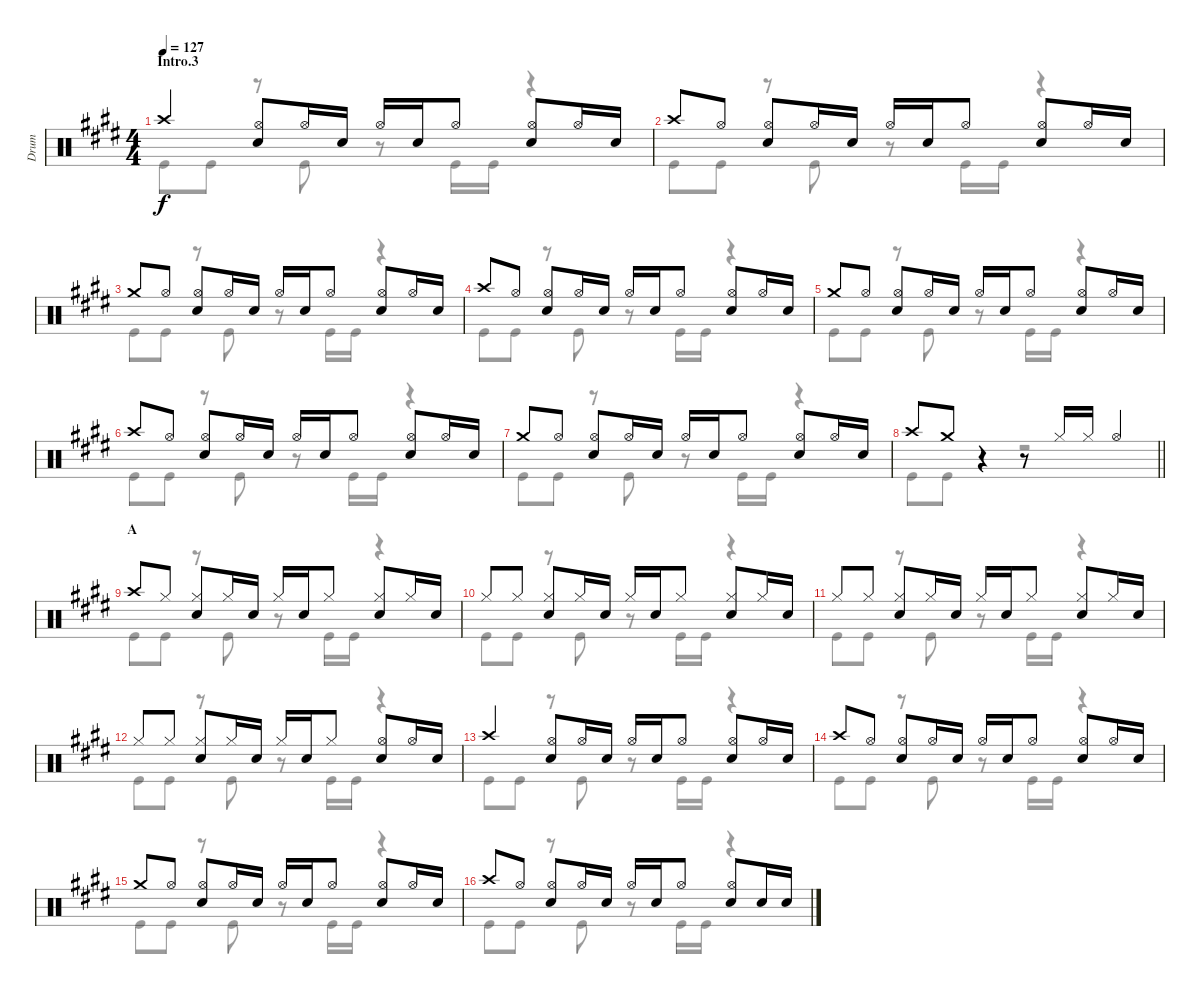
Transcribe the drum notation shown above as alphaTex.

\track ("Drum" "Drum") {instrument percussion}
\staff {score}
\articulation defaults
\voice
\ts (4 4)
\section ("" "Intro.3")
\tempo 127
\clef neutral
\ks e "Crash high (hit)".4{dy f}
("Hi-Hat (open)" "Snare (hit) 2").8 "Hi-Hat (open)".16 "Snare (hit) 2".16 "Hi-Hat (open)".16 "Snare (hit) 2".16 "Hi-Hat (open)".8 ("Snare (hit) 2" "Hi-Hat (open)").8 "Hi-Hat (open)".16 "Snare (hit) 2".16 |
"Crash high (hit)".8 "Hi-Hat (open)".8 ("Hi-Hat (open)" "Snare (hit) 2").8 "Hi-Hat (open)".16 "Snare (hit) 2".16 "Hi-Hat (open)".16 "Snare (hit) 2".16 "Hi-Hat (open)".8 ("Snare (hit) 2" "Hi-Hat (open)").8 "Hi-Hat (open)".16 "Snare (hit) 2".16 |
"Crash medium (hit)".8 "Hi-Hat (open)".8 ("Hi-Hat (open)" "Snare (hit) 2").8 "Hi-Hat (open)".16 "Snare (hit) 2".16 "Hi-Hat (open)".16 "Snare (hit) 2".16 "Hi-Hat (open)".8 ("Snare (hit) 2" "Hi-Hat (open)").8 "Hi-Hat (open)".16 "Snare (hit) 2".16 |
"Crash high (hit)".8 "Hi-Hat (open)".8 ("Hi-Hat (open)" "Snare (hit) 2").8 "Hi-Hat (open)".16 "Snare (hit) 2".16 "Hi-Hat (open)".16 "Snare (hit) 2".16 "Hi-Hat (open)".8 ("Snare (hit) 2" "Hi-Hat (open)").8 "Hi-Hat (open)".16 "Snare (hit) 2".16 |
"Crash medium (hit)".8 "Hi-Hat (open)".8 ("Hi-Hat (open)" "Snare (hit) 2").8 "Hi-Hat (open)".16 "Snare (hit) 2".16 "Hi-Hat (open)".16 "Snare (hit) 2".16 "Hi-Hat (open)".8 ("Snare (hit) 2" "Hi-Hat (open)").8 "Hi-Hat (open)".16 "Snare (hit) 2".16 |
"Crash high (hit)".8 "Hi-Hat (open)".8 ("Hi-Hat (open)" "Snare (hit) 2").8 "Hi-Hat (open)".16 "Snare (hit) 2".16 "Hi-Hat (open)".16 "Snare (hit) 2".16 "Hi-Hat (open)".8 ("Snare (hit) 2" "Hi-Hat (open)").8 "Hi-Hat (open)".16 "Snare (hit) 2".16 |
"Crash medium (hit)".8 "Hi-Hat (open)".8 ("Hi-Hat (open)" "Snare (hit) 2").8 "Hi-Hat (open)".16 "Snare (hit) 2".16 "Hi-Hat (open)".16 "Snare (hit) 2".16 "Hi-Hat (open)".8 ("Snare (hit) 2" "Hi-Hat (open)").8 "Hi-Hat (open)".16 "Snare (hit) 2".16 |
\barLineRight lightlight "Crash high (hit)".8 "Crash medium (hit)".8
r.4 r.8 "Hi-Hat (closed)".16 "Hi-Hat (closed)".16 "Hi-Hat (open)".4 |
\section ("" "A")
"Crash high (hit)".8 "Hi-Hat (closed)".8 ("Hi-Hat (closed)" "Snare (hit) 2").8 "Hi-Hat (closed)".16 "Snare (hit) 2".16 "Hi-Hat (closed)".16 "Snare (hit) 2".16 "Hi-Hat (closed)".8 ("Snare (hit) 2" "Hi-Hat (closed)").8 "Hi-Hat (closed)".16 "Snare (hit) 2".16 |
"Hi-Hat (closed)".8 "Hi-Hat (closed)".8 ("Hi-Hat (closed)" "Snare (hit) 2").8 "Hi-Hat (closed)".16 "Snare (hit) 2".16 "Hi-Hat (closed)".16 "Snare (hit) 2".16 "Hi-Hat (closed)".8 ("Snare (hit) 2" "Hi-Hat (closed)").8 "Hi-Hat (closed)".16 "Snare (hit) 2".16 |
"Hi-Hat (closed)".8 "Hi-Hat (closed)".8 ("Hi-Hat (closed)" "Snare (hit) 2").8 "Hi-Hat (closed)".16 "Snare (hit) 2".16 "Hi-Hat (closed)".16 "Snare (hit) 2".16 "Hi-Hat (closed)".8 ("Snare (hit) 2" "Hi-Hat (closed)").8 "Hi-Hat (closed)".16 "Snare (hit) 2".16 |
"Hi-Hat (closed)".8 "Hi-Hat (closed)".8 ("Hi-Hat (closed)" "Snare (hit) 2").8 "Hi-Hat (closed)".16 "Snare (hit) 2".16 "Hi-Hat (closed)".16 "Snare (hit) 2".16 "Hi-Hat (closed)".8 ("Snare (hit) 2" "Hi-Hat (open)").8 "Hi-Hat (open)".16 "Snare (hit) 2".16 |
"Crash high (hit)".4 ("Hi-Hat (open)" "Snare (hit) 2").8 "Hi-Hat (open)".16 "Snare (hit) 2".16 "Hi-Hat (open)".16 "Snare (hit) 2".16 "Hi-Hat (open)".8 ("Snare (hit) 2" "Hi-Hat (open)").8 "Hi-Hat (open)".16 "Snare (hit) 2".16 |
"Crash high (hit)".8 "Hi-Hat (open)".8 ("Hi-Hat (open)" "Snare (hit) 2").8 "Hi-Hat (open)".16 "Snare (hit) 2".16 "Hi-Hat (open)".16 "Snare (hit) 2".16 "Hi-Hat (open)".8 ("Snare (hit) 2" "Hi-Hat (open)").8 "Hi-Hat (open)".16 "Snare (hit) 2".16 |
"Crash medium (hit)".8 "Hi-Hat (open)".8 ("Hi-Hat (open)" "Snare (hit) 2").8 "Hi-Hat (open)".16 "Snare (hit) 2".16 "Hi-Hat (open)".16 "Snare (hit) 2".16 "Hi-Hat (open)".8 ("Snare (hit) 2" "Hi-Hat (open)").8 "Hi-Hat (open)".16 "Snare (hit) 2".16 |
"Crash high (hit)".8 "Hi-Hat (open)".8 ("Hi-Hat (open)" "Snare (hit) 2").8 "Hi-Hat (open)".16 "Snare (hit) 2".16 "Hi-Hat (open)".16 "Snare (hit) 2".16 "Hi-Hat (open)".8 ("Snare (hit) 2" "Hi-Hat (open)").8 "Snare (hit) 2".16 "Snare (hit) 2".16
\voice
\clef neutral
\ottava regular
\simile none
\ks e "Kick (hit)".8{dy f} "Kick (hit)".8
r.8 "Kick (hit)".8 r.8 "Kick (hit)".16 "Kick (hit)".16 r.4 |
"Kick (hit)".8 "Kick (hit)".8 r.8 "Kick (hit)".8 r.8 "Kick (hit)".16 "Kick (hit)".16 r.4 |
"Kick (hit)".8 "Kick (hit)".8 r.8 "Kick (hit)".8 r.8 "Kick (hit)".16 "Kick (hit)".16 r.4 |
"Kick (hit)".8 "Kick (hit)".8 r.8 "Kick (hit)".8 r.8 "Kick (hit)".16 "Kick (hit)".16 r.4 |
"Kick (hit)".8 "Kick (hit)".8 r.8 "Kick (hit)".8 r.8 "Kick (hit)".16 "Kick (hit)".16 r.4 |
"Kick (hit)".8 "Kick (hit)".8 r.8 "Kick (hit)".8 r.8 "Kick (hit)".16 "Kick (hit)".16 r.4 |
"Kick (hit)".8 "Kick (hit)".8 r.8 "Kick (hit)".8 r.8 "Kick (hit)".16 "Kick (hit)".16 r.4 |
\barLineRight lightlight "Kick (hit)".8 "Kick (hit)".8
r.4 r.2 |
"Kick (hit)".8 "Kick (hit)".8 r.8 "Kick (hit)".8 r.8 "Kick (hit)".16 "Kick (hit)".16 r.4 |
"Kick (hit)".8 "Kick (hit)".8 r.8 "Kick (hit)".8 r.8 "Kick (hit)".16 "Kick (hit)".16 r.4 |
"Kick (hit)".8 "Kick (hit)".8 r.8 "Kick (hit)".8 r.8 "Kick (hit)".16 "Kick (hit)".16 r.4 |
"Kick (hit)".8 "Kick (hit)".8 r.8 "Kick (hit)".8 r.8 "Kick (hit)".16 "Kick (hit)".16 r.4 |
"Kick (hit)".8 "Kick (hit)".8 r.8 "Kick (hit)".8 r.8 "Kick (hit)".16 "Kick (hit)".16 r.4 |
"Kick (hit)".8 "Kick (hit)".8 r.8 "Kick (hit)".8 r.8 "Kick (hit)".16 "Kick (hit)".16 r.4 |
"Kick (hit)".8 "Kick (hit)".8 r.8 "Kick (hit)".8 r.8 "Kick (hit)".16 "Kick (hit)".16 r.4 |
"Kick (hit)".8 "Kick (hit)".8 r.8 "Kick (hit)".8 r.8 "Kick (hit)".16 "Kick (hit)".16 r.4
